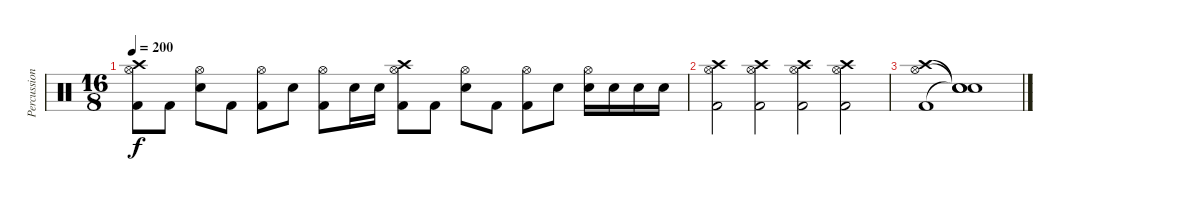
\track ("Percussions" "Percussion") {instrument percussion}
\staff {score}
\articulation defaults
\ts (16 8)
\tempo 200
\clef neutral
\ks c
("Crash high (hit)" "Hi-Hat (open)" "Kick (hit) 2").8{dy f} "Kick (hit) 2".8 ("Hi-Hat (open)" "Electric Snare (hit)").8 "Kick (hit) 2".8 ("Hi-Hat (open)" "Kick (hit) 2").8 "Electric Snare (hit)".8 ("Hi-Hat (open)" "Kick (hit) 2").8 "Electric Snare (hit)".16 "Electric Snare (hit)".16 ("Hi-Hat (open)" "Crash high (hit)" "Kick (hit) 2").8 "Kick (hit) 2".8 ("Hi-Hat (open)" "Electric Snare (hit)").8 "Kick (hit) 2".8 ("Hi-Hat (open)" "Kick (hit) 2").8 "Electric Snare (hit)".8 ("Hi-Hat (open)" "Electric Snare (hit)").16 "Electric Snare (hit)".16 "Electric Snare (hit)".16 "Electric Snare (hit)".16 |
("Crash high (hit)" "Hi-Hat (open)" "Kick (hit) 2").2 ("Crash high (hit)" "Hi-Hat (open)" "Kick (hit) 2").2 ("Crash high (hit)" "Hi-Hat (open)" "Kick (hit) 2").2 ("Crash high (hit)" "Hi-Hat (open)" "Kick (hit) 2").2 |
("Crash high (hit)" "Hi-Hat (open)" "Kick (hit) 2").1 ("Snare (hit)"{t} "Snare (hit)"{t} "Snare (hit)"{t}).1
